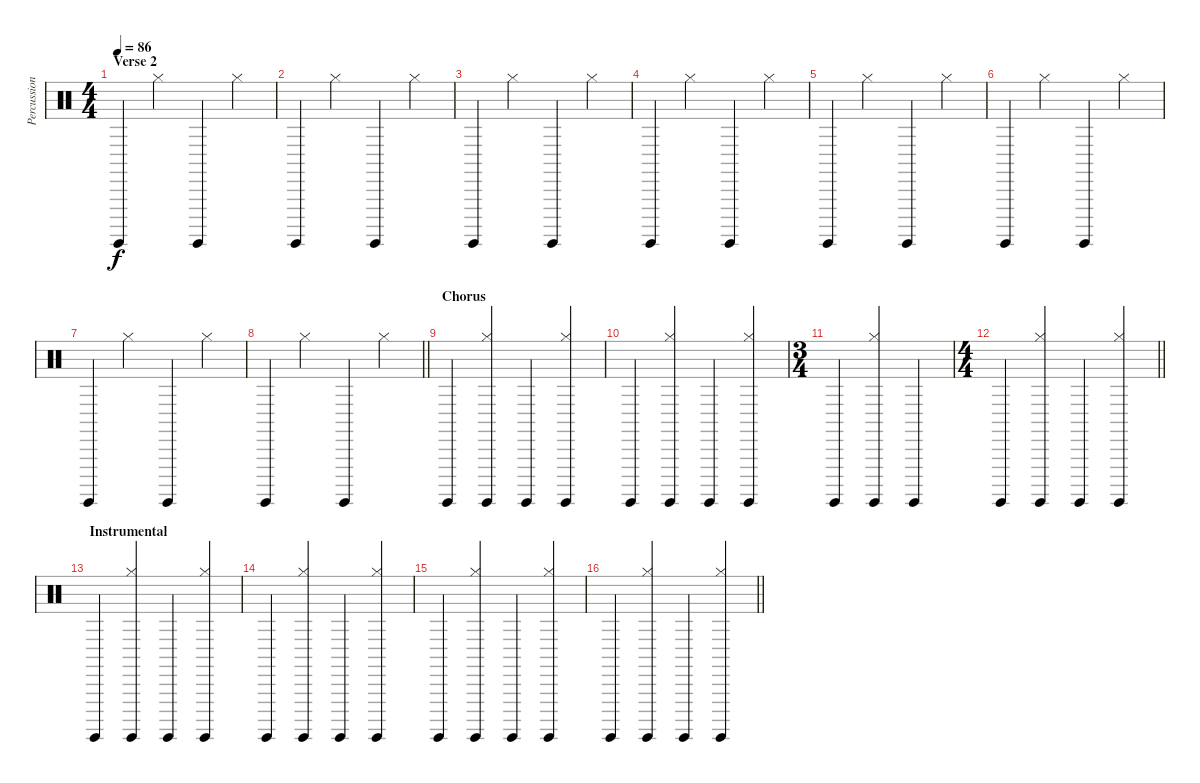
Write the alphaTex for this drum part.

\track ("Percussion" "Percussion") {instrument percussion}
\staff {score}
\articulation defaults
\ts (4 4)
\section ("" "Verse 2")
\tempo 86
\clef neutral
\ks c "Surdo (hit)".4{dy f} "Hi-Hat (closed)".4 "Surdo (hit)".4 "Hi-Hat (closed)".4
|
"Surdo (hit)".4 "Hi-Hat (closed)".4 "Surdo (hit)".4 "Hi-Hat (closed)".4 |
"Surdo (hit)".4 "Hi-Hat (closed)".4 "Surdo (hit)".4 "Hi-Hat (closed)".4 |
"Surdo (hit)".4 "Hi-Hat (closed)".4 "Surdo (hit)".4 "Hi-Hat (closed)".4 |
"Surdo (hit)".4 "Hi-Hat (closed)".4 "Surdo (hit)".4 "Hi-Hat (closed)".4 |
"Surdo (hit)".4 "Hi-Hat (closed)".4 "Surdo (hit)".4 "Hi-Hat (closed)".4 |
"Surdo (hit)".4 "Hi-Hat (closed)".4 "Surdo (hit)".4 "Hi-Hat (closed)".4 |
\barLineRight lightlight "Surdo (hit)".4 "Hi-Hat (closed)".4 "Surdo (hit)".4 "Hi-Hat (closed)".4
|
\section ("" "Chorus")
"Surdo (hit)".4 ("Hi-Hat (closed)" "Surdo (hit)").4 "Surdo (hit)".4 ("Hi-Hat (closed)" "Surdo (hit)").4 |
"Surdo (hit)".4 ("Hi-Hat (closed)" "Surdo (hit)").4 "Surdo (hit)".4 ("Hi-Hat (closed)" "Surdo (hit)").4 |
\ts (3 4)
"Surdo (hit)".4 ("Hi-Hat (closed)" "Surdo (hit)").4 "Surdo (hit)".4 |
\ts (4 4)
\barLineRight lightlight "Surdo (hit)".4
("Hi-Hat (closed)" "Surdo (hit)").4 "Surdo (hit)".4 ("Hi-Hat (closed)" "Surdo (hit)").4 |
\section ("" "Instrumental")
"Surdo (hit)".4 ("Hi-Hat (closed)" "Surdo (hit)").4 "Surdo (hit)".4 ("Hi-Hat (closed)" "Surdo (hit)").4 |
"Surdo (hit)".4 ("Hi-Hat (closed)" "Surdo (hit)").4 "Surdo (hit)".4 ("Hi-Hat (closed)" "Surdo (hit)").4 |
"Surdo (hit)".4 ("Hi-Hat (closed)" "Surdo (hit)").4 "Surdo (hit)".4 ("Hi-Hat (closed)" "Surdo (hit)").4 |
\barLineRight lightlight "Surdo (hit)".4
("Hi-Hat (closed)" "Surdo (hit)").4 "Surdo (hit)".4 ("Hi-Hat (closed)" "Surdo (hit)").4
